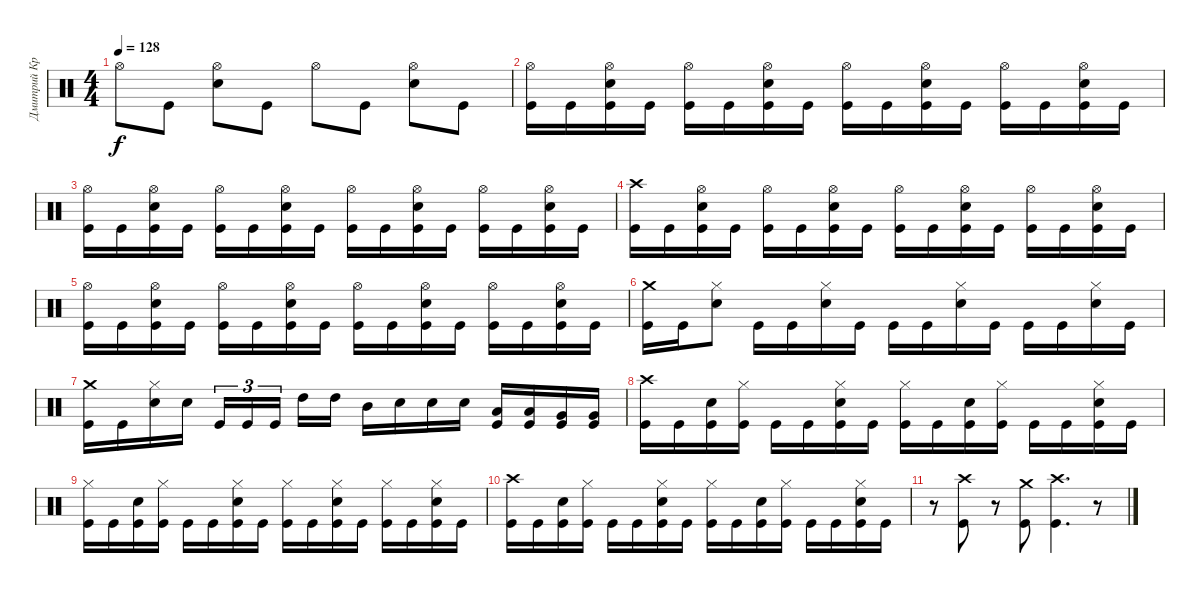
\track ("Дмитрий Кривенков" "Дмитрий Кр") {instrument percussion}
\staff {score}
\articulation defaults
\ts (4 4)
\tempo 128
\clef neutral
\ks c "Hi-Hat (open)".8{dy f} "Kick (hit)".8
("Snare (hit) 2" "Hi-Hat (open)").8 "Kick (hit)".8 "Hi-Hat (open)".8 "Kick (hit)".8 ("Snare (hit) 2" "Hi-Hat (open)").8 "Kick (hit)".8 |
("Hi-Hat (open)" "Kick (hit)").16 "Kick (hit)".16 ("Snare (hit) 2" "Hi-Hat (open)" "Kick (hit)").16 "Kick (hit)".16 ("Hi-Hat (open)" "Kick (hit)").16 "Kick (hit)".16 ("Snare (hit) 2" "Hi-Hat (open)" "Kick (hit)").16 "Kick (hit)".16 ("Hi-Hat (open)" "Kick (hit)").16 "Kick (hit)".16 ("Snare (hit) 2" "Hi-Hat (open)" "Kick (hit)").16 "Kick (hit)".16 ("Hi-Hat (open)" "Kick (hit)").16 "Kick (hit)".16 ("Snare (hit) 2" "Hi-Hat (open)" "Kick (hit)").16 "Kick (hit)".16 |
("Hi-Hat (open)" "Kick (hit)").16 "Kick (hit)".16 ("Snare (hit) 2" "Hi-Hat (open)" "Kick (hit)").16 "Kick (hit)".16 ("Hi-Hat (open)" "Kick (hit)").16 "Kick (hit)".16 ("Snare (hit) 2" "Hi-Hat (open)" "Kick (hit)").16 "Kick (hit)".16 ("Hi-Hat (open)" "Kick (hit)").16 "Kick (hit)".16 ("Snare (hit) 2" "Hi-Hat (open)" "Kick (hit)").16 "Kick (hit)".16 ("Hi-Hat (open)" "Kick (hit)").16 "Kick (hit)".16 ("Snare (hit) 2" "Hi-Hat (open)" "Kick (hit)").16 "Kick (hit)".16 |
("Crash high (hit)" "Kick (hit)").16 "Kick (hit)".16 ("Snare (hit) 2" "Hi-Hat (open)" "Kick (hit)").16 "Kick (hit)".16 ("Hi-Hat (open)" "Kick (hit)").16 "Kick (hit)".16 ("Snare (hit) 2" "Hi-Hat (open)" "Kick (hit)").16 "Kick (hit)".16 ("Hi-Hat (open)" "Kick (hit)").16 "Kick (hit)".16 ("Snare (hit) 2" "Hi-Hat (open)" "Kick (hit)").16 "Kick (hit)".16 ("Hi-Hat (open)" "Kick (hit)").16 "Kick (hit)".16 ("Snare (hit) 2" "Hi-Hat (open)" "Kick (hit)").16 "Kick (hit)".16 |
("Hi-Hat (open)" "Kick (hit)").16 "Kick (hit)".16 ("Snare (hit) 2" "Hi-Hat (open)" "Kick (hit)").16 "Kick (hit)".16 ("Hi-Hat (open)" "Kick (hit)").16 "Kick (hit)".16 ("Snare (hit) 2" "Hi-Hat (open)" "Kick (hit)").16 "Kick (hit)".16 ("Hi-Hat (open)" "Kick (hit)").16 "Kick (hit)".16 ("Snare (hit) 2" "Hi-Hat (open)" "Kick (hit)").16 "Kick (hit)".16 ("Hi-Hat (open)" "Kick (hit)").16 "Kick (hit)".16 ("Snare (hit) 2" "Hi-Hat (open)" "Kick (hit)").16 "Kick (hit)".16 |
("Crash medium (hit)" "Kick (hit)").16 "Kick (hit)".16 ("Snare (hit) 2" "Hi-Hat (closed)").8 "Kick (hit)".16 "Kick (hit)".16 ("Snare (hit) 2" "Hi-Hat (closed)").16 "Kick (hit)".16 "Kick (hit)".16 "Kick (hit)".16 ("Snare (hit) 2" "Hi-Hat (closed)").16 "Kick (hit)".16 "Kick (hit)".16 "Kick (hit)".16 ("Snare (hit) 2" "Hi-Hat (closed)").16 "Kick (hit)".16 |
("Crash medium (hit)" "Kick (hit)").16 "Kick (hit)".16 ("Snare (hit) 2" "Hi-Hat (closed)").16 "Snare (hit) 2".16 "Kick (hit)".16{tu (3 2)} "Kick (hit)".16{tu (3 2)} "Kick (hit)".16{tu (3 2) beam splitsecondary} "High Tom (hit)".16 "High Tom (hit)".16 "Mid Tom (hit)".16 "Snare (hit) 2".16 "Snare (hit) 2".16 "Snare (hit) 2".16 ("Kick (hit)" "Low Tom (hit)").16 ("Kick (hit)" "Low Tom (hit)").16 ("Kick (hit)" "Very Low Tom (hit)").16 ("Kick (hit)" "Very Low Tom (hit)").16 |
("Crash high (hit)" "Kick (hit)").16 "Kick (hit)".16 ("Snare (hit) 2" "Kick (hit)").16 ("Hi-Hat (closed)" "Kick (hit)").16 "Kick (hit)".16 "Kick (hit)".16 ("Snare (hit) 2" "Hi-Hat (closed)" "Kick (hit)").16 "Kick (hit)".16 ("Hi-Hat (closed)" "Kick (hit)").16 "Kick (hit)".16 ("Snare (hit) 2" "Kick (hit)").16 ("Hi-Hat (closed)" "Kick (hit)").16 "Kick (hit)".16 "Kick (hit)".16 ("Snare (hit) 2" "Hi-Hat (closed)" "Kick (hit)").16 "Kick (hit)".16 |
("Hi-Hat (closed)" "Kick (hit)").16 "Kick (hit)".16 ("Snare (hit) 2" "Kick (hit)").16 ("Hi-Hat (closed)" "Kick (hit)").16 "Kick (hit)".16 "Kick (hit)".16 ("Snare (hit) 2" "Hi-Hat (closed)" "Kick (hit)").16 "Kick (hit)".16 ("Hi-Hat (closed)" "Kick (hit)").16 "Kick (hit)".16 ("Snare (hit) 2" "Hi-Hat (closed)" "Kick (hit)").16 "Kick (hit)".16 ("Hi-Hat (closed)" "Kick (hit)").16 "Kick (hit)".16 ("Snare (hit) 2" "Hi-Hat (closed)" "Kick (hit)").16 "Kick (hit)".16 |
("Crash high (hit)" "Kick (hit)").16 "Kick (hit)".16 ("Snare (hit) 2" "Kick (hit)").16 ("Hi-Hat (closed)" "Kick (hit)").16 "Kick (hit)".16 "Kick (hit)".16 ("Snare (hit) 2" "Hi-Hat (closed)" "Kick (hit)").16 "Kick (hit)".16 ("Hi-Hat (closed)" "Kick (hit)").16 "Kick (hit)".16 ("Snare (hit) 2" "Kick (hit)").16 ("Hi-Hat (closed)" "Kick (hit)").16 "Kick (hit)".16 "Kick (hit)".16 ("Snare (hit) 2" "Hi-Hat (closed)" "Kick (hit)").16 "Kick (hit)".16 |
r.8 ("Crash high (hit)" "Kick (hit)").8 r.8 ("Crash medium (hit)" "Kick (hit)").8 ("Crash high (hit)" "Kick (hit)").4{d} r.8
